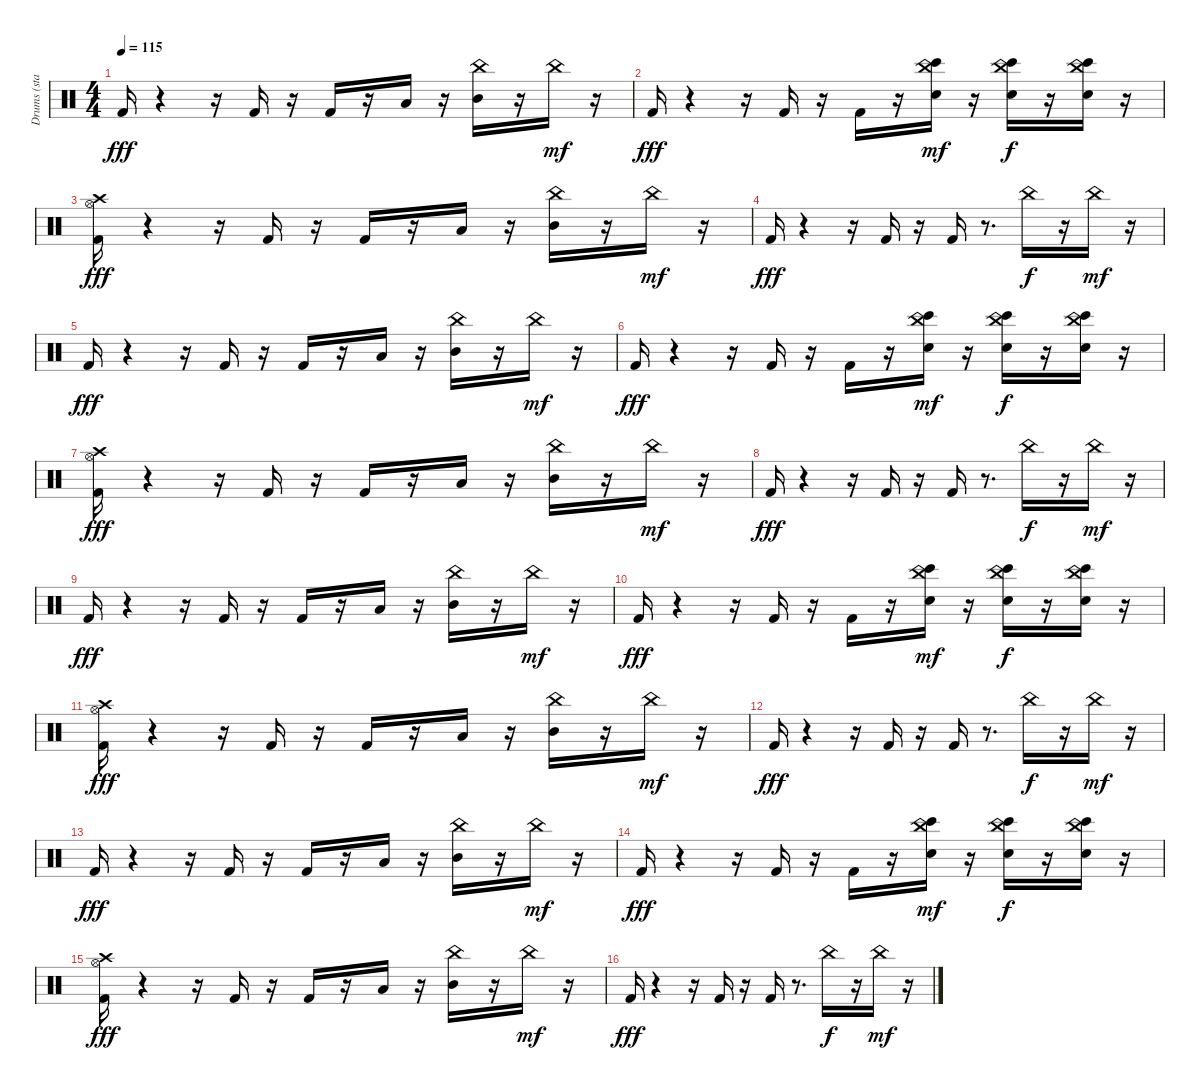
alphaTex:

\track ("Drums (stand.set)   " "Drums (sta") {instrument percussion}
\staff {score}
\articulation defaults
\ts (4 4)
\tempo 115
\clef neutral
\ks c "Kick (hit) 2".16{dy fff}
r.4 r.16 "Kick (hit) 2".16 r.16 "Kick (hit) 2".16 r.16 "Low Tom (hit)".16 r.16 ("Mid Tom (hit)" "China (hit)").16 r.16 "China (hit)".16{dy mf} r.16 |
"Kick (hit) 2".16{dy fff} r.4 r.16 "Kick (hit) 2".16 r.16 "Kick (hit) 2".16 r.16 ("Bongo High (hit)" "Hand Clap (hit)" "China (hit)").16{dy mf} r.16 ("Bongo High (hit)" "Hand Clap (hit)" "China (hit)").16{dy f} r.16 ("Bongo High (hit)" "Hand Clap (hit)" "China (hit)").16 r.16 |
("Kick (hit) 2" "Hi-Hat (open)" "Crash high (hit)").16{dy fff} r.4 r.16 "Kick (hit) 2".16 r.16 "Kick (hit) 2".16 r.16 "Low Tom (hit)".16 r.16 ("Mid Tom (hit)" "China (hit)").16 r.16 "China (hit)".16{dy mf} r.16 |
"Kick (hit) 2".16{dy fff} r.4 r.16 "Kick (hit) 2".16 r.16 "Kick (hit) 2".16 r.8{d} "China (hit)".16{dy f} r.16 "China (hit)".16{dy mf} r.16 |
"Kick (hit) 2".16{dy fff} r.4 r.16 "Kick (hit) 2".16 r.16 "Kick (hit) 2".16 r.16 "Low Tom (hit)".16 r.16 ("Mid Tom (hit)" "China (hit)").16 r.16 "China (hit)".16{dy mf} r.16 |
"Kick (hit) 2".16{dy fff} r.4 r.16 "Kick (hit) 2".16 r.16 "Kick (hit) 2".16 r.16 ("Bongo High (hit)" "Hand Clap (hit)" "China (hit)").16{dy mf} r.16 ("Bongo High (hit)" "Hand Clap (hit)" "China (hit)").16{dy f} r.16 ("Bongo High (hit)" "Hand Clap (hit)" "China (hit)").16 r.16 |
("Kick (hit) 2" "Hi-Hat (open)" "Crash high (hit)").16{dy fff} r.4 r.16 "Kick (hit) 2".16 r.16 "Kick (hit) 2".16 r.16 "Low Tom (hit)".16 r.16 ("Mid Tom (hit)" "China (hit)").16 r.16 "China (hit)".16{dy mf} r.16 |
"Kick (hit) 2".16{dy fff} r.4 r.16 "Kick (hit) 2".16 r.16 "Kick (hit) 2".16 r.8{d} "China (hit)".16{dy f} r.16 "China (hit)".16{dy mf} r.16 |
"Kick (hit) 2".16{dy fff} r.4 r.16 "Kick (hit) 2".16 r.16 "Kick (hit) 2".16 r.16 "Low Tom (hit)".16 r.16 ("Mid Tom (hit)" "China (hit)").16 r.16 "China (hit)".16{dy mf} r.16 |
"Kick (hit) 2".16{dy fff} r.4 r.16 "Kick (hit) 2".16 r.16 "Kick (hit) 2".16 r.16 ("Bongo High (hit)" "Hand Clap (hit)" "China (hit)").16{dy mf} r.16 ("Bongo High (hit)" "Hand Clap (hit)" "China (hit)").16{dy f} r.16 ("Bongo High (hit)" "Hand Clap (hit)" "China (hit)").16 r.16 |
("Kick (hit) 2" "Hi-Hat (open)" "Crash high (hit)").16{dy fff} r.4 r.16 "Kick (hit) 2".16 r.16 "Kick (hit) 2".16 r.16 "Low Tom (hit)".16 r.16 ("Mid Tom (hit)" "China (hit)").16 r.16 "China (hit)".16{dy mf} r.16 |
"Kick (hit) 2".16{dy fff} r.4 r.16 "Kick (hit) 2".16 r.16 "Kick (hit) 2".16 r.8{d} "China (hit)".16{dy f} r.16 "China (hit)".16{dy mf} r.16 |
"Kick (hit) 2".16{dy fff} r.4 r.16 "Kick (hit) 2".16 r.16 "Kick (hit) 2".16 r.16 "Low Tom (hit)".16 r.16 ("Mid Tom (hit)" "China (hit)").16 r.16 "China (hit)".16{dy mf} r.16 |
"Kick (hit) 2".16{dy fff} r.4 r.16 "Kick (hit) 2".16 r.16 "Kick (hit) 2".16 r.16 ("Bongo High (hit)" "Hand Clap (hit)" "China (hit)").16{dy mf} r.16 ("Bongo High (hit)" "Hand Clap (hit)" "China (hit)").16{dy f} r.16 ("Bongo High (hit)" "Hand Clap (hit)" "China (hit)").16 r.16 |
("Kick (hit) 2" "Hi-Hat (open)" "Crash high (hit)").16{dy fff} r.4 r.16 "Kick (hit) 2".16 r.16 "Kick (hit) 2".16 r.16 "Low Tom (hit)".16 r.16 ("Mid Tom (hit)" "China (hit)").16 r.16 "China (hit)".16{dy mf} r.16 |
"Kick (hit) 2".16{dy fff} r.4 r.16 "Kick (hit) 2".16 r.16 "Kick (hit) 2".16 r.8{d} "China (hit)".16{dy f} r.16 "China (hit)".16{dy mf} r.16
